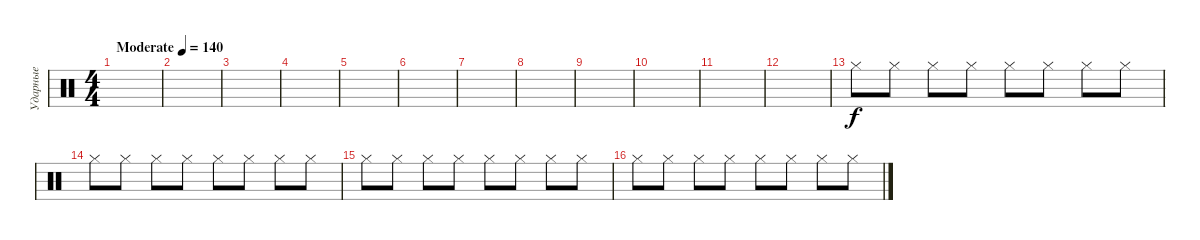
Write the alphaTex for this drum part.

\track ("Ударные" "Ударные") {instrument percussion}
\staff {score}
\articulation defaults
\ts (4 4)
\tempo (140 "Moderate")
\clef neutral
\ks c
|
|
|
|
|
|
|
|
|
|
|
|
"Hi-Hat (closed)".8 "Hi-Hat (closed)".8 "Hi-Hat (closed)".8 "Hi-Hat (closed)".8 "Hi-Hat (closed)".8 "Hi-Hat (closed)".8 "Hi-Hat (closed)".8 "Hi-Hat (closed)".8 |
"Hi-Hat (closed)".8 "Hi-Hat (closed)".8 "Hi-Hat (closed)".8 "Hi-Hat (closed)".8 "Hi-Hat (closed)".8 "Hi-Hat (closed)".8 "Hi-Hat (closed)".8 "Hi-Hat (closed)".8 |
"Hi-Hat (closed)".8 "Hi-Hat (closed)".8 "Hi-Hat (closed)".8 "Hi-Hat (closed)".8 "Hi-Hat (closed)".8 "Hi-Hat (closed)".8 "Hi-Hat (closed)".8 "Hi-Hat (closed)".8 |
"Hi-Hat (closed)".8 "Hi-Hat (closed)".8 "Hi-Hat (closed)".8 "Hi-Hat (closed)".8 "Hi-Hat (closed)".8 "Hi-Hat (closed)".8 "Hi-Hat (closed)".8 "Hi-Hat (closed)".8
